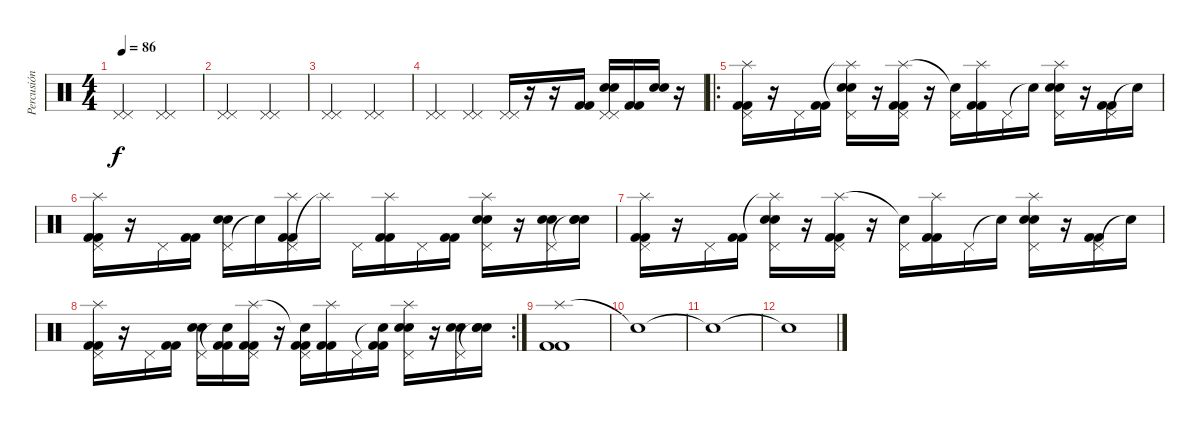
\track ("Percusión" "Percusión") {instrument percussion}
\staff {score}
\articulation defaults
\ts (4 4)
\tempo 86
\clef neutral
\ks c
("Pedal Hi-Hat (hit)" "Pedal Hi-Hat (hit)").2{dy f} ("Pedal Hi-Hat (hit)" "Pedal Hi-Hat (hit)").2 |
("Pedal Hi-Hat (hit)" "Pedal Hi-Hat (hit)").2 ("Pedal Hi-Hat (hit)" "Pedal Hi-Hat (hit)").2 |
("Pedal Hi-Hat (hit)" "Pedal Hi-Hat (hit)").2 ("Pedal Hi-Hat (hit)" "Pedal Hi-Hat (hit)").2 |
("Pedal Hi-Hat (hit)" "Pedal Hi-Hat (hit)").4 ("Pedal Hi-Hat (hit)" "Pedal Hi-Hat (hit)").4 ("Pedal Hi-Hat (hit)" "Pedal Hi-Hat (hit)").16 r.16 r.16 ("Kick (hit) 2" "Kick (hit) 2").16 ("Pedal Hi-Hat (hit)" "Pedal Hi-Hat (hit)" "Electric Snare (hit)" "Electric Snare (hit)").16 ("Kick (hit) 2" "Kick (hit) 2").16 ("Electric Snare (hit)" "Electric Snare (hit)").16 r.16 |
\ro
("Pedal Hi-Hat (hit)" "Splash (hit)" "Kick (hit) 2" "Kick (hit) 2").16 r.16 "Pedal Hi-Hat (hit)".16 ("Kick (hit) 2" "Kick (hit) 2").16 ("Pedal Hi-Hat (hit)" "Splash (hit)"{t} "Electric Snare (hit)" "Electric Snare (hit)").16 r.16 ("Pedal Hi-Hat (hit)" "Splash (hit)" "Kick (hit) 2" "Kick (hit) 2").16 r.16 ("Pedal Hi-Hat (hit)" "Snare (hit)"{t}).16 ("Splash (hit)" "Kick (hit) 2" "Kick (hit) 2").16 "Pedal Hi-Hat (hit)".16 "Snare (hit)"{t}.16 ("Pedal Hi-Hat (hit)" "Splash (hit)" "Electric Snare (hit)" "Electric Snare (hit)").16 r.16 ("Pedal Hi-Hat (hit)" "Kick (hit) 2" "Kick (hit) 2").16 "Snare (hit)"{t}.16 |
("Pedal Hi-Hat (hit)" "Splash (hit)" "Kick (hit) 2" "Kick (hit) 2").16 r.16 "Pedal Hi-Hat (hit)".16 ("Kick (hit) 2" "Kick (hit) 2").16 ("Pedal Hi-Hat (hit)" "Electric Snare (hit)" "Electric Snare (hit)").16 "Snare (hit)"{t}.16 ("Pedal Hi-Hat (hit)" "Splash (hit)" "Kick (hit) 2" "Kick (hit) 2").16 "Splash (hit)"{t}.16 "Pedal Hi-Hat (hit)".16 ("Splash (hit)" "Kick (hit) 2" "Kick (hit) 2").16 "Pedal Hi-Hat (hit)".16 ("Kick (hit) 2" "Kick (hit) 2").16 ("Pedal Hi-Hat (hit)" "Splash (hit)" "Electric Snare (hit)" "Electric Snare (hit)").16 r.16 ("Pedal Hi-Hat (hit)" "Electric Snare (hit)" "Electric Snare (hit)").16 ("Snare (hit)"{t} "Electric Snare (hit)" "Electric Snare (hit)").16 |
("Pedal Hi-Hat (hit)" "Splash (hit)" "Kick (hit) 2" "Kick (hit) 2").16 r.16 "Pedal Hi-Hat (hit)".16 ("Kick (hit) 2" "Kick (hit) 2").16 ("Pedal Hi-Hat (hit)" "Splash (hit)"{t} "Electric Snare (hit)" "Electric Snare (hit)").16 r.16 ("Pedal Hi-Hat (hit)" "Splash (hit)" "Kick (hit) 2" "Kick (hit) 2").16 r.16 ("Pedal Hi-Hat (hit)" "Snare (hit)"{t}).16 ("Splash (hit)" "Kick (hit) 2" "Kick (hit) 2").16 "Pedal Hi-Hat (hit)".16 "Snare (hit)"{t}.16 ("Pedal Hi-Hat (hit)" "Splash (hit)" "Electric Snare (hit)" "Electric Snare (hit)").16 r.16 ("Pedal Hi-Hat (hit)" "Kick (hit) 2" "Kick (hit) 2").16 "Snare (hit)"{t}.16 |
\rc 2
("Pedal Hi-Hat (hit)" "Splash (hit)" "Kick (hit) 2" "Kick (hit) 2").16 r.16 "Pedal Hi-Hat (hit)".16 ("Kick (hit) 2" "Kick (hit) 2").16 ("Pedal Hi-Hat (hit)" "Electric Snare (hit)" "Electric Snare (hit)").16 ("Snare (hit)"{t} "Kick (hit) 2" "Kick (hit) 2").16 ("Pedal Hi-Hat (hit)" "Splash (hit)" "Kick (hit) 2" "Kick (hit) 2").16 r.16 ("Pedal Hi-Hat (hit)" "Snare (hit)"{t} "Kick (hit) 2" "Kick (hit) 2").16 ("Splash (hit)" "Kick (hit) 2" "Kick (hit) 2").16 "Pedal Hi-Hat (hit)".16 ("Snare (hit)"{t} "Kick (hit) 2" "Kick (hit) 2").16 ("Pedal Hi-Hat (hit)" "Splash (hit)" "Electric Snare (hit)" "Electric Snare (hit)").16 r.16 ("Pedal Hi-Hat (hit)" "Electric Snare (hit)" "Electric Snare (hit)").16 ("Snare (hit)"{t} "Electric Snare (hit)" "Electric Snare (hit)").16 |
("Splash (hit)" "Kick (hit) 2" "Kick (hit) 2").1 |
"Snare (hit)"{t}.1 |
"Snare (hit)"{t}.1 |
"Snare (hit)"{t}.1
